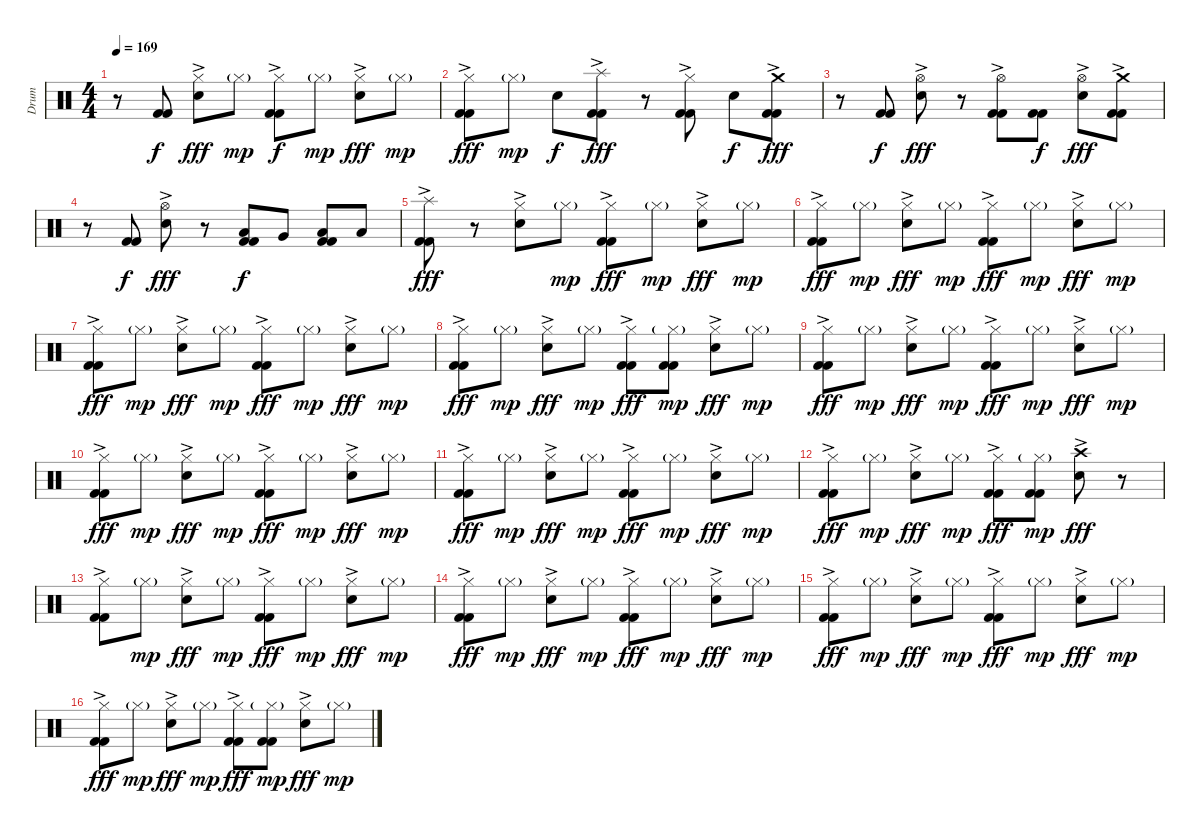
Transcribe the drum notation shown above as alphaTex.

\track ("Drum" "Drum") {instrument percussion}
\staff {score}
\articulation defaults
\ts (4 4)
\tempo 169
\clef neutral
\ks c
r.8{dy fff} ("Kick (hit) 2" "Kick (hit) 2").8{dy f} ("Hi-Hat (closed)"{ac} "Electric Snare (hit)").8{dy fff} "Hi-Hat (closed)"{g}.8{dy mp} ("Hi-Hat (closed)"{ac} "Kick (hit) 2" "Kick (hit) 2").8{dy f} "Hi-Hat (closed)"{g}.8{dy mp} ("Hi-Hat (closed)"{ac} "Electric Snare (hit)").8{dy fff} "Hi-Hat (closed)"{g}.8{dy mp} |
("Hi-Hat (closed)"{ac} "Kick (hit) 2" "Kick (hit) 2").8{dy fff} "Hi-Hat (closed)"{g}.8{dy mp} "Electric Snare (hit)".8{dy f} ("Splash (hit)"{ac} "Kick (hit) 2" "Kick (hit) 2").8{dy fff} r.8 ("Hi-Hat (closed)"{ac} "Kick (hit) 2" "Kick (hit) 2").8 "Electric Snare (hit)".8{dy f} ("Crash medium (hit)"{ac} "Kick (hit) 2" "Kick (hit) 2").8{dy fff} |
r.8 ("Kick (hit) 2" "Kick (hit) 2").8{dy f} ("Hi-Hat (open)"{ac} "Electric Snare (hit)").8{dy fff} r.8 ("Hi-Hat (open)"{ac} "Kick (hit) 2" "Kick (hit) 2").8 ("Kick (hit) 2" "Kick (hit) 2").8{dy f} ("Hi-Hat (open)"{ac} "Electric Snare (hit)").8{dy fff} ("Crash medium (hit)"{ac} "Kick (hit) 2" "Kick (hit) 2").8 |
r.8 ("Kick (hit) 2" "Kick (hit) 2").8{dy f} ("Hi-Hat (open)"{ac} "Electric Snare (hit)").8{dy fff} r.8 ("Low Tom (hit)" "Kick (hit) 2" "Kick (hit) 2").8{dy f} "Very Low Tom (hit)".8 ("Low Floor Tom (hit)" "Kick (hit) 2" "Kick (hit) 2").8 "Low Floor Tom (hit)".8 |
("Splash (hit)"{ac} "Kick (hit) 2" "Kick (hit) 2").8{dy fff} r.8 ("Hi-Hat (closed)"{ac} "Electric Snare (hit)").8 "Hi-Hat (closed)"{g}.8{dy mp} ("Hi-Hat (closed)"{ac} "Kick (hit) 2" "Kick (hit) 2").8{dy fff} "Hi-Hat (closed)"{g}.8{dy mp} ("Hi-Hat (closed)"{ac} "Electric Snare (hit)").8{dy fff} "Hi-Hat (closed)"{g}.8{dy mp} |
("Hi-Hat (closed)"{ac} "Kick (hit) 2" "Kick (hit) 2").8{dy fff} "Hi-Hat (closed)"{g}.8{dy mp} ("Hi-Hat (closed)"{ac} "Electric Snare (hit)").8{dy fff} "Hi-Hat (closed)"{g}.8{dy mp} ("Hi-Hat (closed)"{ac} "Kick (hit) 2" "Kick (hit) 2").8{dy fff} "Hi-Hat (closed)"{g}.8{dy mp} ("Hi-Hat (closed)"{ac} "Electric Snare (hit)").8{dy fff} "Hi-Hat (closed)"{g}.8{dy mp} |
("Hi-Hat (closed)"{ac} "Kick (hit) 2" "Kick (hit) 2").8{dy fff} "Hi-Hat (closed)"{g}.8{dy mp} ("Hi-Hat (closed)"{ac} "Electric Snare (hit)").8{dy fff} "Hi-Hat (closed)"{g}.8{dy mp} ("Hi-Hat (closed)"{ac} "Kick (hit) 2" "Kick (hit) 2").8{dy fff} "Hi-Hat (closed)"{g}.8{dy mp} ("Hi-Hat (closed)"{ac} "Electric Snare (hit)").8{dy fff} "Hi-Hat (closed)"{g}.8{dy mp} |
("Hi-Hat (closed)"{ac} "Kick (hit) 2" "Kick (hit) 2").8{dy fff} "Hi-Hat (closed)"{g}.8{dy mp} ("Hi-Hat (closed)"{ac} "Electric Snare (hit)").8{dy fff} "Hi-Hat (closed)"{g}.8{dy mp} ("Hi-Hat (closed)"{ac} "Kick (hit) 2" "Kick (hit) 2").8{dy fff} ("Hi-Hat (closed)"{g} "Kick (hit) 2" "Kick (hit) 2").8{dy mp} ("Hi-Hat (closed)"{ac} "Electric Snare (hit)").8{dy fff} "Hi-Hat (closed)"{g}.8{dy mp} |
("Hi-Hat (closed)"{ac} "Kick (hit) 2" "Kick (hit) 2").8{dy fff} "Hi-Hat (closed)"{g}.8{dy mp} ("Hi-Hat (closed)"{ac} "Electric Snare (hit)").8{dy fff} "Hi-Hat (closed)"{g}.8{dy mp} ("Hi-Hat (closed)"{ac} "Kick (hit) 2" "Kick (hit) 2").8{dy fff} "Hi-Hat (closed)"{g}.8{dy mp} ("Hi-Hat (closed)"{ac} "Electric Snare (hit)").8{dy fff} "Hi-Hat (closed)"{g}.8{dy mp} |
("Hi-Hat (closed)"{ac} "Kick (hit) 2" "Kick (hit) 2").8{dy fff} "Hi-Hat (closed)"{g}.8{dy mp} ("Hi-Hat (closed)"{ac} "Electric Snare (hit)").8{dy fff} "Hi-Hat (closed)"{g}.8{dy mp} ("Hi-Hat (closed)"{ac} "Kick (hit) 2" "Kick (hit) 2").8{dy fff} "Hi-Hat (closed)"{g}.8{dy mp} ("Hi-Hat (closed)"{ac} "Electric Snare (hit)").8{dy fff} "Hi-Hat (closed)"{g}.8{dy mp} |
("Hi-Hat (closed)"{ac} "Kick (hit) 2" "Kick (hit) 2").8{dy fff} "Hi-Hat (closed)"{g}.8{dy mp} ("Hi-Hat (closed)"{ac} "Electric Snare (hit)").8{dy fff} "Hi-Hat (closed)"{g}.8{dy mp} ("Hi-Hat (closed)"{ac} "Kick (hit) 2" "Kick (hit) 2").8{dy fff} "Hi-Hat (closed)"{g}.8{dy mp} ("Hi-Hat (closed)"{ac} "Electric Snare (hit)").8{dy fff} "Hi-Hat (closed)"{g}.8{dy mp} |
("Hi-Hat (closed)"{ac} "Kick (hit) 2" "Kick (hit) 2").8{dy fff} "Hi-Hat (closed)"{g}.8{dy mp} ("Hi-Hat (closed)"{ac} "Electric Snare (hit)").8{dy fff} "Hi-Hat (closed)"{g}.8{dy mp} ("Hi-Hat (closed)"{ac} "Kick (hit) 2" "Kick (hit) 2").8{dy fff} ("Hi-Hat (closed)"{g} "Kick (hit) 2" "Kick (hit) 2").8{dy mp} ("Crash high (hit)"{ac} "Electric Snare (hit)").8{dy fff} r.8 |
("Hi-Hat (closed)"{ac} "Kick (hit) 2" "Kick (hit) 2").8 "Hi-Hat (closed)"{g}.8{dy mp} ("Hi-Hat (closed)"{ac} "Electric Snare (hit)").8{dy fff} "Hi-Hat (closed)"{g}.8{dy mp} ("Hi-Hat (closed)"{ac} "Kick (hit) 2" "Kick (hit) 2").8{dy fff} "Hi-Hat (closed)"{g}.8{dy mp} ("Hi-Hat (closed)"{ac} "Electric Snare (hit)").8{dy fff} "Hi-Hat (closed)"{g}.8{dy mp} |
("Hi-Hat (closed)"{ac} "Kick (hit) 2" "Kick (hit) 2").8{dy fff} "Hi-Hat (closed)"{g}.8{dy mp} ("Hi-Hat (closed)"{ac} "Electric Snare (hit)").8{dy fff} "Hi-Hat (closed)"{g}.8{dy mp} ("Hi-Hat (closed)"{ac} "Kick (hit) 2" "Kick (hit) 2").8{dy fff} "Hi-Hat (closed)"{g}.8{dy mp} ("Hi-Hat (closed)"{ac} "Electric Snare (hit)").8{dy fff} "Hi-Hat (closed)"{g}.8{dy mp} |
("Hi-Hat (closed)"{ac} "Kick (hit) 2" "Kick (hit) 2").8{dy fff} "Hi-Hat (closed)"{g}.8{dy mp} ("Hi-Hat (closed)"{ac} "Electric Snare (hit)").8{dy fff} "Hi-Hat (closed)"{g}.8{dy mp} ("Hi-Hat (closed)"{ac} "Kick (hit) 2" "Kick (hit) 2").8{dy fff} "Hi-Hat (closed)"{g}.8{dy mp} ("Hi-Hat (closed)"{ac} "Electric Snare (hit)").8{dy fff} "Hi-Hat (closed)"{g}.8{dy mp} |
("Hi-Hat (closed)"{ac} "Kick (hit) 2" "Kick (hit) 2").8{dy fff} "Hi-Hat (closed)"{g}.8{dy mp} ("Hi-Hat (closed)"{ac} "Electric Snare (hit)").8{dy fff} "Hi-Hat (closed)"{g}.8{dy mp} ("Hi-Hat (closed)"{ac} "Kick (hit) 2" "Kick (hit) 2").8{dy fff} ("Hi-Hat (closed)"{g} "Kick (hit) 2" "Kick (hit) 2").8{dy mp} ("Hi-Hat (closed)"{ac} "Electric Snare (hit)").8{dy fff} "Hi-Hat (closed)"{g}.8{dy mp}
